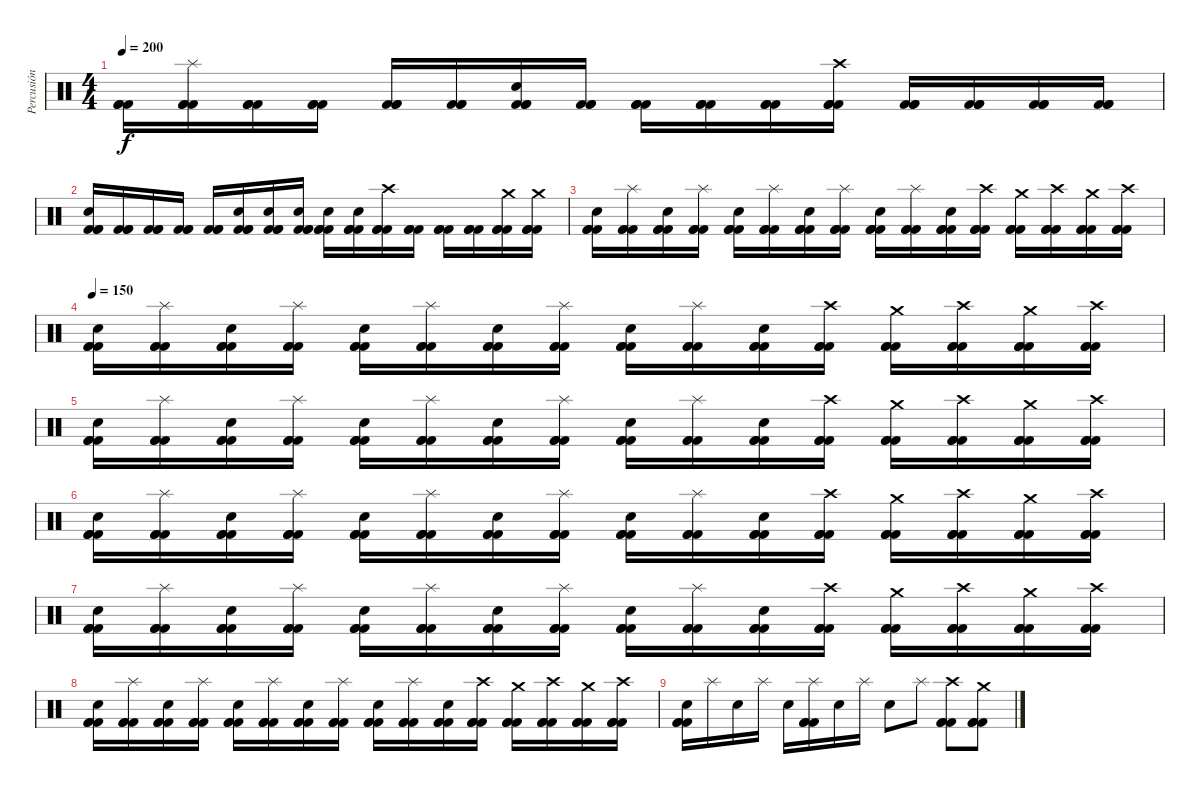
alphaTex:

\track ("Percusión" "Percusión") {instrument percussion}
\staff {score}
\articulation defaults
\ts (4 4)
\tempo 200
\clef neutral
\ks c
("Kick (hit) 2" "Kick (hit) 2" "Kick (hit) 2").16{dy f} ("Splash (hit)" "Kick (hit) 2" "Kick (hit) 2" "Kick (hit) 2").16 ("Kick (hit) 2" "Kick (hit) 2" "Kick (hit) 2").16 ("Kick (hit) 2" "Kick (hit) 2" "Kick (hit) 2").16 ("Kick (hit) 2" "Kick (hit) 2" "Kick (hit) 2").16 ("Kick (hit) 2" "Kick (hit) 2" "Kick (hit) 2").16 ("Electric Snare (hit)" "Kick (hit) 2" "Kick (hit) 2" "Kick (hit) 2").16 ("Kick (hit) 2" "Kick (hit) 2" "Kick (hit) 2").16 ("Kick (hit) 2" "Kick (hit) 2" "Kick (hit) 2").16 ("Kick (hit) 2" "Kick (hit) 2" "Kick (hit) 2").16 ("Kick (hit) 2" "Kick (hit) 2" "Kick (hit) 2").16 ("Crash high (hit)" "Kick (hit) 2" "Kick (hit) 2" "Kick (hit) 2").16 ("Kick (hit) 2" "Kick (hit) 2" "Kick (hit) 2").16 ("Kick (hit) 2" "Kick (hit) 2" "Kick (hit) 2").16 ("Kick (hit) 2" "Kick (hit) 2" "Kick (hit) 2").16 ("Kick (hit) 2" "Kick (hit) 2" "Kick (hit) 2").16 |
("Electric Snare (hit)" "Kick (hit) 2" "Kick (hit) 2" "Kick (hit) 2").16 ("Kick (hit) 2" "Kick (hit) 2" "Kick (hit) 2").16 ("Kick (hit) 2" "Kick (hit) 2" "Kick (hit) 2").16 ("Kick (hit) 2" "Kick (hit) 2" "Kick (hit) 2").16 ("Kick (hit) 2" "Kick (hit) 2" "Kick (hit) 2").16 ("Electric Snare (hit)" "Kick (hit) 2" "Kick (hit) 2" "Kick (hit) 2").16 ("Electric Snare (hit)" "Kick (hit) 2" "Kick (hit) 2" "Kick (hit) 2").16 ("Electric Snare (hit)" "Kick (hit) 2" "Kick (hit) 2" "Kick (hit) 2").16 ("Electric Snare (hit)" "Kick (hit) 2" "Kick (hit) 2" "Kick (hit) 2").16 ("Electric Snare (hit)" "Kick (hit) 2" "Kick (hit) 2" "Kick (hit) 2").16 ("Crash high (hit)" "Kick (hit) 2" "Kick (hit) 2" "Kick (hit) 2").16 ("Kick (hit) 2" "Kick (hit) 2" "Kick (hit) 2").16 ("Kick (hit) 2" "Kick (hit) 2" "Kick (hit) 2").16 ("Kick (hit) 2" "Kick (hit) 2" "Kick (hit) 2").16 ("Crash medium (hit)" "Kick (hit) 2" "Kick (hit) 2" "Kick (hit) 2").16 ("Crash medium (hit)" "Kick (hit) 2" "Kick (hit) 2" "Kick (hit) 2").16 |
("Electric Snare (hit)" "Kick (hit) 2" "Kick (hit) 2" "Kick (hit) 2").16 ("Splash (hit)" "Kick (hit) 2" "Kick (hit) 2" "Kick (hit) 2").16 ("Electric Snare (hit)" "Kick (hit) 2" "Kick (hit) 2" "Kick (hit) 2").16 ("Splash (hit)" "Kick (hit) 2" "Kick (hit) 2" "Kick (hit) 2").16 ("Electric Snare (hit)" "Kick (hit) 2" "Kick (hit) 2" "Kick (hit) 2").16 ("Splash (hit)" "Kick (hit) 2" "Kick (hit) 2" "Kick (hit) 2").16 ("Electric Snare (hit)" "Kick (hit) 2" "Kick (hit) 2" "Kick (hit) 2").16 ("Splash (hit)" "Kick (hit) 2" "Kick (hit) 2" "Kick (hit) 2").16 ("Electric Snare (hit)" "Kick (hit) 2" "Kick (hit) 2" "Kick (hit) 2").16 ("Splash (hit)" "Kick (hit) 2" "Kick (hit) 2" "Kick (hit) 2").16 ("Electric Snare (hit)" "Kick (hit) 2" "Kick (hit) 2" "Kick (hit) 2").16 ("Crash high (hit)" "Kick (hit) 2" "Kick (hit) 2" "Kick (hit) 2").16 ("Crash medium (hit)" "Kick (hit) 2" "Kick (hit) 2" "Kick (hit) 2").16 ("Crash high (hit)" "Kick (hit) 2" "Kick (hit) 2" "Kick (hit) 2").16 ("Crash medium (hit)" "Kick (hit) 2" "Kick (hit) 2" "Kick (hit) 2").16 ("Crash high (hit)" "Kick (hit) 2" "Kick (hit) 2" "Kick (hit) 2").16 |
\tempo 150
("Electric Snare (hit)" "Kick (hit) 2" "Kick (hit) 2" "Kick (hit) 2").16 ("Splash (hit)" "Kick (hit) 2" "Kick (hit) 2" "Kick (hit) 2").16 ("Electric Snare (hit)" "Kick (hit) 2" "Kick (hit) 2" "Kick (hit) 2").16 ("Splash (hit)" "Kick (hit) 2" "Kick (hit) 2" "Kick (hit) 2").16 ("Electric Snare (hit)" "Kick (hit) 2" "Kick (hit) 2" "Kick (hit) 2").16 ("Splash (hit)" "Kick (hit) 2" "Kick (hit) 2" "Kick (hit) 2").16 ("Electric Snare (hit)" "Kick (hit) 2" "Kick (hit) 2" "Kick (hit) 2").16 ("Splash (hit)" "Kick (hit) 2" "Kick (hit) 2" "Kick (hit) 2").16 ("Electric Snare (hit)" "Kick (hit) 2" "Kick (hit) 2" "Kick (hit) 2").16 ("Splash (hit)" "Kick (hit) 2" "Kick (hit) 2" "Kick (hit) 2").16 ("Electric Snare (hit)" "Kick (hit) 2" "Kick (hit) 2" "Kick (hit) 2").16 ("Crash high (hit)" "Kick (hit) 2" "Kick (hit) 2" "Kick (hit) 2").16 ("Crash medium (hit)" "Kick (hit) 2" "Kick (hit) 2" "Kick (hit) 2").16 ("Crash high (hit)" "Kick (hit) 2" "Kick (hit) 2" "Kick (hit) 2").16 ("Crash medium (hit)" "Kick (hit) 2" "Kick (hit) 2" "Kick (hit) 2").16 ("Crash high (hit)" "Kick (hit) 2" "Kick (hit) 2" "Kick (hit) 2").16 |
("Electric Snare (hit)" "Kick (hit) 2" "Kick (hit) 2" "Kick (hit) 2").16 ("Splash (hit)" "Kick (hit) 2" "Kick (hit) 2" "Kick (hit) 2").16 ("Electric Snare (hit)" "Kick (hit) 2" "Kick (hit) 2" "Kick (hit) 2").16 ("Splash (hit)" "Kick (hit) 2" "Kick (hit) 2" "Kick (hit) 2").16 ("Electric Snare (hit)" "Kick (hit) 2" "Kick (hit) 2" "Kick (hit) 2").16 ("Splash (hit)" "Kick (hit) 2" "Kick (hit) 2" "Kick (hit) 2").16 ("Electric Snare (hit)" "Kick (hit) 2" "Kick (hit) 2" "Kick (hit) 2").16 ("Splash (hit)" "Kick (hit) 2" "Kick (hit) 2" "Kick (hit) 2").16 ("Electric Snare (hit)" "Kick (hit) 2" "Kick (hit) 2" "Kick (hit) 2").16 ("Splash (hit)" "Kick (hit) 2" "Kick (hit) 2" "Kick (hit) 2").16 ("Electric Snare (hit)" "Kick (hit) 2" "Kick (hit) 2" "Kick (hit) 2").16 ("Crash high (hit)" "Kick (hit) 2" "Kick (hit) 2" "Kick (hit) 2").16 ("Crash medium (hit)" "Kick (hit) 2" "Kick (hit) 2" "Kick (hit) 2").16 ("Crash high (hit)" "Kick (hit) 2" "Kick (hit) 2" "Kick (hit) 2").16 ("Crash medium (hit)" "Kick (hit) 2" "Kick (hit) 2" "Kick (hit) 2").16 ("Crash high (hit)" "Kick (hit) 2" "Kick (hit) 2" "Kick (hit) 2").16 |
("Electric Snare (hit)" "Kick (hit) 2" "Kick (hit) 2" "Kick (hit) 2").16 ("Splash (hit)" "Kick (hit) 2" "Kick (hit) 2" "Kick (hit) 2").16 ("Electric Snare (hit)" "Kick (hit) 2" "Kick (hit) 2" "Kick (hit) 2").16 ("Splash (hit)" "Kick (hit) 2" "Kick (hit) 2" "Kick (hit) 2").16 ("Electric Snare (hit)" "Kick (hit) 2" "Kick (hit) 2" "Kick (hit) 2").16 ("Splash (hit)" "Kick (hit) 2" "Kick (hit) 2" "Kick (hit) 2").16 ("Electric Snare (hit)" "Kick (hit) 2" "Kick (hit) 2" "Kick (hit) 2").16 ("Splash (hit)" "Kick (hit) 2" "Kick (hit) 2" "Kick (hit) 2").16 ("Electric Snare (hit)" "Kick (hit) 2" "Kick (hit) 2" "Kick (hit) 2").16 ("Splash (hit)" "Kick (hit) 2" "Kick (hit) 2" "Kick (hit) 2").16 ("Electric Snare (hit)" "Kick (hit) 2" "Kick (hit) 2" "Kick (hit) 2").16 ("Crash high (hit)" "Kick (hit) 2" "Kick (hit) 2" "Kick (hit) 2").16 ("Crash medium (hit)" "Kick (hit) 2" "Kick (hit) 2" "Kick (hit) 2").16 ("Crash high (hit)" "Kick (hit) 2" "Kick (hit) 2" "Kick (hit) 2").16 ("Crash medium (hit)" "Kick (hit) 2" "Kick (hit) 2" "Kick (hit) 2").16 ("Crash high (hit)" "Kick (hit) 2" "Kick (hit) 2" "Kick (hit) 2").16 |
("Electric Snare (hit)" "Kick (hit) 2" "Kick (hit) 2" "Kick (hit) 2").16 ("Splash (hit)" "Kick (hit) 2" "Kick (hit) 2" "Kick (hit) 2").16 ("Electric Snare (hit)" "Kick (hit) 2" "Kick (hit) 2" "Kick (hit) 2").16 ("Splash (hit)" "Kick (hit) 2" "Kick (hit) 2" "Kick (hit) 2").16 ("Electric Snare (hit)" "Kick (hit) 2" "Kick (hit) 2" "Kick (hit) 2").16 ("Splash (hit)" "Kick (hit) 2" "Kick (hit) 2" "Kick (hit) 2").16 ("Electric Snare (hit)" "Kick (hit) 2" "Kick (hit) 2" "Kick (hit) 2").16 ("Splash (hit)" "Kick (hit) 2" "Kick (hit) 2" "Kick (hit) 2").16 ("Electric Snare (hit)" "Kick (hit) 2" "Kick (hit) 2" "Kick (hit) 2").16 ("Splash (hit)" "Kick (hit) 2" "Kick (hit) 2" "Kick (hit) 2").16 ("Electric Snare (hit)" "Kick (hit) 2" "Kick (hit) 2" "Kick (hit) 2").16 ("Crash high (hit)" "Kick (hit) 2" "Kick (hit) 2" "Kick (hit) 2").16 ("Crash medium (hit)" "Kick (hit) 2" "Kick (hit) 2" "Kick (hit) 2").16 ("Crash high (hit)" "Kick (hit) 2" "Kick (hit) 2" "Kick (hit) 2").16 ("Crash medium (hit)" "Kick (hit) 2" "Kick (hit) 2" "Kick (hit) 2").16 ("Crash high (hit)" "Kick (hit) 2" "Kick (hit) 2" "Kick (hit) 2").16 |
("Electric Snare (hit)" "Kick (hit) 2" "Kick (hit) 2" "Kick (hit) 2").16 ("Splash (hit)" "Kick (hit) 2" "Kick (hit) 2" "Kick (hit) 2").16 ("Electric Snare (hit)" "Kick (hit) 2" "Kick (hit) 2" "Kick (hit) 2").16 ("Splash (hit)" "Kick (hit) 2" "Kick (hit) 2" "Kick (hit) 2").16 ("Electric Snare (hit)" "Kick (hit) 2" "Kick (hit) 2" "Kick (hit) 2").16 ("Splash (hit)" "Kick (hit) 2" "Kick (hit) 2" "Kick (hit) 2").16 ("Electric Snare (hit)" "Kick (hit) 2" "Kick (hit) 2" "Kick (hit) 2").16 ("Splash (hit)" "Kick (hit) 2" "Kick (hit) 2" "Kick (hit) 2").16 ("Electric Snare (hit)" "Kick (hit) 2" "Kick (hit) 2" "Kick (hit) 2").16 ("Splash (hit)" "Kick (hit) 2" "Kick (hit) 2" "Kick (hit) 2").16 ("Electric Snare (hit)" "Kick (hit) 2" "Kick (hit) 2" "Kick (hit) 2").16 ("Crash high (hit)" "Kick (hit) 2" "Kick (hit) 2" "Kick (hit) 2").16 ("Crash medium (hit)" "Kick (hit) 2" "Kick (hit) 2" "Kick (hit) 2").16 ("Crash high (hit)" "Kick (hit) 2" "Kick (hit) 2" "Kick (hit) 2").16 ("Crash medium (hit)" "Kick (hit) 2" "Kick (hit) 2" "Kick (hit) 2").16 ("Crash high (hit)" "Kick (hit) 2" "Kick (hit) 2" "Kick (hit) 2").16 |
("Electric Snare (hit)" "Kick (hit) 2" "Kick (hit) 2" "Kick (hit) 2").16 "Splash (hit)".16 "Electric Snare (hit)".16 "Splash (hit)".16 "Electric Snare (hit)".16 ("Splash (hit)" "Kick (hit) 2" "Kick (hit) 2" "Kick (hit) 2").16 "Electric Snare (hit)".16 "Splash (hit)".16 "Electric Snare (hit)".8 "Splash (hit)".8 ("Crash high (hit)" "Kick (hit) 2" "Kick (hit) 2" "Kick (hit) 2").8 ("Crash medium (hit)" "Kick (hit) 2" "Kick (hit) 2" "Kick (hit) 2").8
